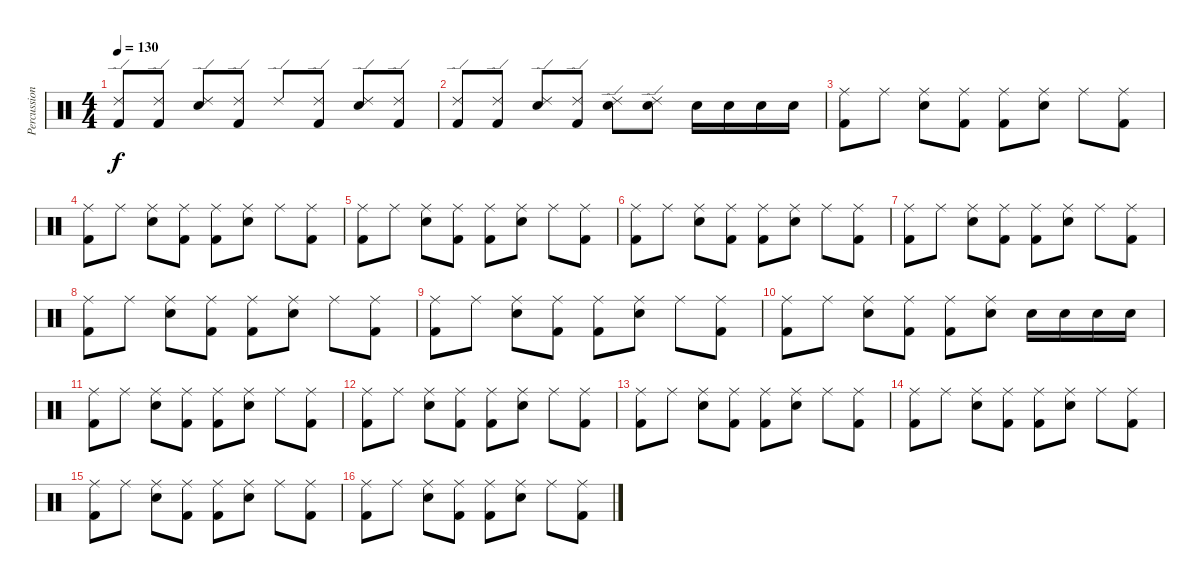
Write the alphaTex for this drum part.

\track ("Percussion" "Percussion") {instrument percussion}
\staff {score}
\articulation defaults
\ts (4 4)
\tempo 130
\clef neutral
\ks c
("Kick (hit) 2" "Ride (edge) 2").8{dy f} ("Kick (hit) 2" "Ride (edge) 2").8 ("Snare (hit) 2" "Ride (edge) 2").8 ("Kick (hit) 2" "Ride (edge) 2").8 "Ride (edge) 2".8 ("Kick (hit) 2" "Ride (edge) 2").8 ("Snare (hit) 2" "Ride (edge) 2").8 ("Kick (hit) 2" "Ride (edge) 2").8 |
("Kick (hit) 2" "Ride (edge) 2").8 ("Kick (hit) 2" "Ride (edge) 2").8 ("Snare (hit) 2" "Ride (edge) 2").8 ("Kick (hit) 2" "Ride (edge) 2").8 ("Snare (hit) 2" "Ride (edge) 2").8 ("Snare (hit) 2" "Ride (edge) 2").8 "Snare (hit) 2".16 "Snare (hit) 2".16 "Snare (hit) 2".16 "Snare (hit) 2".16 |
("Kick (hit) 2" "Ride (middle)").8 "Ride (middle)".8 ("Snare (hit) 2" "Ride (middle)").8 ("Kick (hit) 2" "Ride (middle)").8 ("Kick (hit) 2" "Ride (middle)").8 ("Snare (hit) 2" "Ride (middle)").8 "Ride (middle)".8 ("Kick (hit) 2" "Ride (middle)").8 |
("Kick (hit) 2" "Ride (middle)").8 "Ride (middle)".8 ("Snare (hit) 2" "Ride (middle)").8 ("Kick (hit) 2" "Ride (middle)").8 ("Kick (hit) 2" "Ride (middle)").8 ("Snare (hit) 2" "Ride (middle)").8 "Ride (middle)".8 ("Kick (hit) 2" "Ride (middle)").8 |
("Kick (hit) 2" "Ride (middle)").8 "Ride (middle)".8 ("Snare (hit) 2" "Ride (middle)").8 ("Kick (hit) 2" "Ride (middle)").8 ("Kick (hit) 2" "Ride (middle)").8 ("Snare (hit) 2" "Ride (middle)").8 "Ride (middle)".8 ("Kick (hit) 2" "Ride (middle)").8 |
("Kick (hit) 2" "Ride (middle)").8 "Ride (middle)".8 ("Snare (hit) 2" "Ride (middle)").8 ("Kick (hit) 2" "Ride (middle)").8 ("Kick (hit) 2" "Ride (middle)").8 ("Snare (hit) 2" "Ride (middle)").8 "Ride (middle)".8 ("Kick (hit) 2" "Ride (middle)").8 |
("Kick (hit) 2" "Ride (middle)").8 "Ride (middle)".8 ("Snare (hit) 2" "Ride (middle)").8 ("Kick (hit) 2" "Ride (middle)").8 ("Kick (hit) 2" "Ride (middle)").8 ("Snare (hit) 2" "Ride (middle)").8 "Ride (middle)".8 ("Kick (hit) 2" "Ride (middle)").8 |
("Kick (hit) 2" "Ride (middle)").8 "Ride (middle)".8 ("Snare (hit) 2" "Ride (middle)").8 ("Kick (hit) 2" "Ride (middle)").8 ("Kick (hit) 2" "Ride (middle)").8 ("Snare (hit) 2" "Ride (middle)").8 "Ride (middle)".8 ("Kick (hit) 2" "Ride (middle)").8 |
("Kick (hit) 2" "Ride (middle)").8 "Ride (middle)".8 ("Snare (hit) 2" "Ride (middle)").8 ("Kick (hit) 2" "Ride (middle)").8 ("Kick (hit) 2" "Ride (middle)").8 ("Snare (hit) 2" "Ride (middle)").8 "Ride (middle)".8 ("Kick (hit) 2" "Ride (middle)").8 |
("Kick (hit) 2" "Ride (middle)").8 "Ride (middle)".8 ("Snare (hit) 2" "Ride (middle)").8 ("Kick (hit) 2" "Ride (middle)").8 ("Kick (hit) 2" "Ride (middle)").8 ("Snare (hit) 2" "Ride (middle)").8 "Snare (hit) 2".16 "Snare (hit) 2".16 "Snare (hit) 2".16 "Snare (hit) 2".16 |
("Kick (hit) 2" "Ride (middle)").8 "Ride (middle)".8 ("Snare (hit) 2" "Ride (middle)").8 ("Kick (hit) 2" "Ride (middle)").8 ("Kick (hit) 2" "Ride (middle)").8 ("Snare (hit) 2" "Ride (middle)").8 "Ride (middle)".8 ("Kick (hit) 2" "Ride (middle)").8 |
("Kick (hit) 2" "Ride (middle)").8 "Ride (middle)".8 ("Snare (hit) 2" "Ride (middle)").8 ("Kick (hit) 2" "Ride (middle)").8 ("Kick (hit) 2" "Ride (middle)").8 ("Snare (hit) 2" "Ride (middle)").8 "Ride (middle)".8 ("Kick (hit) 2" "Ride (middle)").8 |
("Kick (hit) 2" "Ride (middle)").8 "Ride (middle)".8 ("Snare (hit) 2" "Ride (middle)").8 ("Kick (hit) 2" "Ride (middle)").8 ("Kick (hit) 2" "Ride (middle)").8 ("Snare (hit) 2" "Ride (middle)").8 "Ride (middle)".8 ("Kick (hit) 2" "Ride (middle)").8 |
("Kick (hit) 2" "Ride (middle)").8 "Ride (middle)".8 ("Snare (hit) 2" "Ride (middle)").8 ("Kick (hit) 2" "Ride (middle)").8 ("Kick (hit) 2" "Ride (middle)").8 ("Snare (hit) 2" "Ride (middle)").8 "Ride (middle)".8 ("Kick (hit) 2" "Ride (middle)").8 |
("Kick (hit) 2" "Ride (middle)").8 "Ride (middle)".8 ("Snare (hit) 2" "Ride (middle)").8 ("Kick (hit) 2" "Ride (middle)").8 ("Kick (hit) 2" "Ride (middle)").8 ("Snare (hit) 2" "Ride (middle)").8 "Ride (middle)".8 ("Kick (hit) 2" "Ride (middle)").8 |
("Kick (hit) 2" "Ride (middle)").8 "Ride (middle)".8 ("Snare (hit) 2" "Ride (middle)").8 ("Kick (hit) 2" "Ride (middle)").8 ("Kick (hit) 2" "Ride (middle)").8 ("Snare (hit) 2" "Ride (middle)").8 "Ride (middle)".8 ("Kick (hit) 2" "Ride (middle)").8
